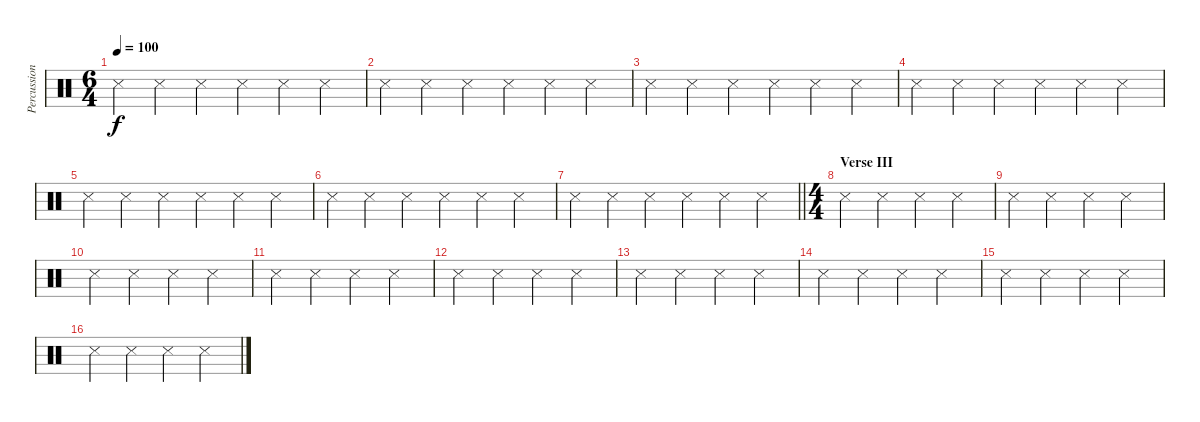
\track ("Percussion" "Percussion") {mute instrument percussion}
\staff {score}
\articulation defaults
\ts (6 4)
\tempo 100
\clef neutral
\ks c "Metronome (hit)".4{dy f} "Snare (side stick) 3".4 "Snare (side stick) 3".4 "Snare (side stick) 3".4 "Snare (side stick) 3".4 "Snare (side stick) 3".4
|
"Metronome (hit)".4 "Snare (side stick) 3".4 "Snare (side stick) 3".4 "Snare (side stick) 3".4 "Snare (side stick) 3".4 "Snare (side stick) 3".4 |
"Metronome (hit)".4 "Snare (side stick) 3".4 "Snare (side stick) 3".4 "Snare (side stick) 3".4 "Snare (side stick) 3".4 "Snare (side stick) 3".4 |
"Metronome (hit)".4 "Snare (side stick) 3".4 "Snare (side stick) 3".4 "Snare (side stick) 3".4 "Snare (side stick) 3".4 "Snare (side stick) 3".4 |
"Metronome (hit)".4 "Snare (side stick) 3".4 "Snare (side stick) 3".4 "Snare (side stick) 3".4 "Snare (side stick) 3".4 "Snare (side stick) 3".4 |
"Metronome (hit)".4 "Snare (side stick) 3".4 "Snare (side stick) 3".4 "Snare (side stick) 3".4 "Snare (side stick) 3".4 "Snare (side stick) 3".4 |
\barLineRight lightlight "Metronome (hit)".4 "Snare (side stick) 3".4 "Snare (side stick) 3".4 "Snare (side stick) 3".4 "Snare (side stick) 3".4 "Snare (side stick) 3".4
|
\ts (4 4)
\section ("" "Verse III")
"Metronome (hit)".4 "Snare (side stick) 3".4 "Snare (side stick) 3".4 "Snare (side stick) 3".4 |
"Metronome (hit)".4 "Snare (side stick) 3".4 "Snare (side stick) 3".4 "Snare (side stick) 3".4 |
"Metronome (hit)".4 "Snare (side stick) 3".4 "Snare (side stick) 3".4 "Snare (side stick) 3".4 |
"Metronome (hit)".4 "Snare (side stick) 3".4 "Snare (side stick) 3".4 "Snare (side stick) 3".4 |
"Metronome (hit)".4 "Snare (side stick) 3".4 "Snare (side stick) 3".4 "Snare (side stick) 3".4 |
"Metronome (hit)".4 "Snare (side stick) 3".4 "Snare (side stick) 3".4 "Snare (side stick) 3".4 |
"Metronome (hit)".4 "Snare (side stick) 3".4 "Snare (side stick) 3".4 "Snare (side stick) 3".4 |
"Metronome (hit)".4 "Snare (side stick) 3".4 "Snare (side stick) 3".4 "Snare (side stick) 3".4 |
"Metronome (hit)".4 "Snare (side stick) 3".4 "Snare (side stick) 3".4 "Snare (side stick) 3".4
